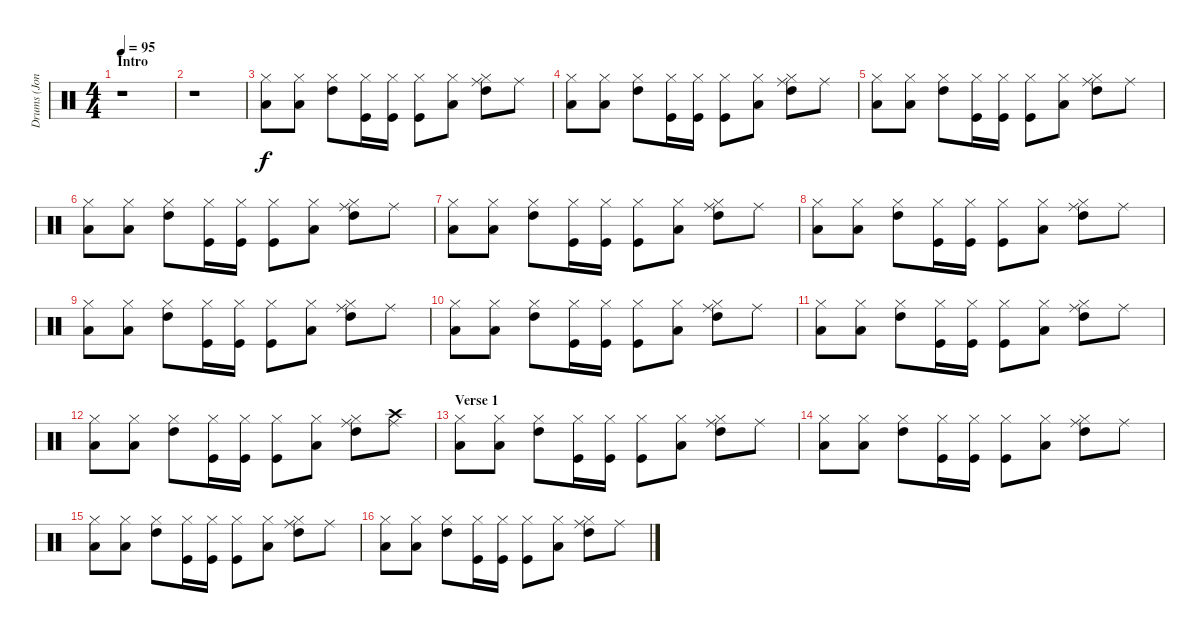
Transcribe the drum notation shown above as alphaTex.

\track ("Drums (Jon Lee)" "Drums (Jon") {instrument percussion}
\staff {score}
\articulation defaults
\ts (4 4)
\section ("" "Intro")
\tempo 95
\clef neutral
\ks c
r.1{dy f} |
r.1 |
("Low Floor Tom (hit)" "Hi-Hat (closed)").8 ("Low Floor Tom (hit)" "Hi-Hat (closed)").8 ("High Tom (hit)" "Hi-Hat (closed)").8 ("Kick (hit)" "Hi-Hat (closed)").16 ("Kick (hit)" "Hi-Hat (closed)").16 ("Kick (hit)" "Hi-Hat (closed)").8 ("Low Floor Tom (hit)" "Hi-Hat (closed)").8 ("High Tom (hit)" "Hi-Hat (closed)" "Ride (middle)").8 "Ride (middle)".8 |
("Low Floor Tom (hit)" "Hi-Hat (closed)").8 ("Low Floor Tom (hit)" "Hi-Hat (closed)").8 ("High Tom (hit)" "Hi-Hat (closed)").8 ("Kick (hit)" "Hi-Hat (closed)").16 ("Kick (hit)" "Hi-Hat (closed)").16 ("Kick (hit)" "Hi-Hat (closed)").8 ("Low Floor Tom (hit)" "Hi-Hat (closed)").8 ("High Tom (hit)" "Hi-Hat (closed)" "Ride (middle)").8 "Ride (middle)".8 |
("Low Floor Tom (hit)" "Hi-Hat (closed)").8 ("Low Floor Tom (hit)" "Hi-Hat (closed)").8 ("High Tom (hit)" "Hi-Hat (closed)").8 ("Kick (hit)" "Hi-Hat (closed)").16 ("Kick (hit)" "Hi-Hat (closed)").16 ("Kick (hit)" "Hi-Hat (closed)").8 ("Low Floor Tom (hit)" "Hi-Hat (closed)").8 ("High Tom (hit)" "Hi-Hat (closed)" "Ride (middle)").8 "Ride (middle)".8 |
("Low Floor Tom (hit)" "Hi-Hat (closed)").8 ("Low Floor Tom (hit)" "Hi-Hat (closed)").8 ("High Tom (hit)" "Hi-Hat (closed)").8 ("Kick (hit)" "Hi-Hat (closed)").16 ("Kick (hit)" "Hi-Hat (closed)").16 ("Kick (hit)" "Hi-Hat (closed)").8 ("Low Floor Tom (hit)" "Hi-Hat (closed)").8 ("High Tom (hit)" "Hi-Hat (closed)" "Ride (middle)").8 "Ride (middle)".8 |
("Low Floor Tom (hit)" "Hi-Hat (closed)").8 ("Low Floor Tom (hit)" "Hi-Hat (closed)").8 ("High Tom (hit)" "Hi-Hat (closed)").8 ("Kick (hit)" "Hi-Hat (closed)").16 ("Kick (hit)" "Hi-Hat (closed)").16 ("Kick (hit)" "Hi-Hat (closed)").8 ("Low Floor Tom (hit)" "Hi-Hat (closed)").8 ("High Tom (hit)" "Hi-Hat (closed)" "Ride (middle)").8 "Ride (middle)".8 |
("Low Floor Tom (hit)" "Hi-Hat (closed)").8 ("Low Floor Tom (hit)" "Hi-Hat (closed)").8 ("High Tom (hit)" "Hi-Hat (closed)").8 ("Kick (hit)" "Hi-Hat (closed)").16 ("Kick (hit)" "Hi-Hat (closed)").16 ("Kick (hit)" "Hi-Hat (closed)").8 ("Low Floor Tom (hit)" "Hi-Hat (closed)").8 ("High Tom (hit)" "Hi-Hat (closed)" "Ride (middle)").8 "Ride (middle)".8 |
("Low Floor Tom (hit)" "Hi-Hat (closed)").8 ("Low Floor Tom (hit)" "Hi-Hat (closed)").8 ("High Tom (hit)" "Hi-Hat (closed)").8 ("Kick (hit)" "Hi-Hat (closed)").16 ("Kick (hit)" "Hi-Hat (closed)").16 ("Kick (hit)" "Hi-Hat (closed)").8 ("Low Floor Tom (hit)" "Hi-Hat (closed)").8 ("High Tom (hit)" "Hi-Hat (closed)" "Ride (middle)").8 "Ride (middle)".8 |
("Low Floor Tom (hit)" "Hi-Hat (closed)").8 ("Low Floor Tom (hit)" "Hi-Hat (closed)").8 ("High Tom (hit)" "Hi-Hat (closed)").8 ("Kick (hit)" "Hi-Hat (closed)").16 ("Kick (hit)" "Hi-Hat (closed)").16 ("Kick (hit)" "Hi-Hat (closed)").8 ("Low Floor Tom (hit)" "Hi-Hat (closed)").8 ("High Tom (hit)" "Hi-Hat (closed)" "Ride (middle)").8 "Ride (middle)".8 |
("Low Floor Tom (hit)" "Hi-Hat (closed)").8 ("Low Floor Tom (hit)" "Hi-Hat (closed)").8 ("High Tom (hit)" "Hi-Hat (closed)").8 ("Kick (hit)" "Hi-Hat (closed)").16 ("Kick (hit)" "Hi-Hat (closed)").16 ("Kick (hit)" "Hi-Hat (closed)").8 ("Low Floor Tom (hit)" "Hi-Hat (closed)").8 ("High Tom (hit)" "Hi-Hat (closed)" "Ride (middle)").8 "Ride (middle)".8 |
("Low Floor Tom (hit)" "Hi-Hat (closed)").8 ("Low Floor Tom (hit)" "Hi-Hat (closed)").8 ("High Tom (hit)" "Hi-Hat (closed)").8 ("Kick (hit)" "Hi-Hat (closed)").16 ("Kick (hit)" "Hi-Hat (closed)").16 ("Kick (hit)" "Hi-Hat (closed)").8 ("Low Floor Tom (hit)" "Hi-Hat (closed)").8 ("High Tom (hit)" "Hi-Hat (closed)" "Ride (middle)").8 ("Ride (middle)" "Crash high (hit)").8 |
\section ("" "Verse 1")
("Low Floor Tom (hit)" "Hi-Hat (closed)").8 ("Low Floor Tom (hit)" "Hi-Hat (closed)").8 ("High Tom (hit)" "Hi-Hat (closed)").8 ("Kick (hit)" "Hi-Hat (closed)").16 ("Kick (hit)" "Hi-Hat (closed)").16 ("Kick (hit)" "Hi-Hat (closed)").8 ("Low Floor Tom (hit)" "Hi-Hat (closed)").8 ("High Tom (hit)" "Hi-Hat (closed)" "Ride (middle)").8 "Ride (middle)".8 |
("Low Floor Tom (hit)" "Hi-Hat (closed)").8 ("Low Floor Tom (hit)" "Hi-Hat (closed)").8 ("High Tom (hit)" "Hi-Hat (closed)").8 ("Kick (hit)" "Hi-Hat (closed)").16 ("Kick (hit)" "Hi-Hat (closed)").16 ("Kick (hit)" "Hi-Hat (closed)").8 ("Low Floor Tom (hit)" "Hi-Hat (closed)").8 ("High Tom (hit)" "Hi-Hat (closed)" "Ride (middle)").8 "Ride (middle)".8 |
("Low Floor Tom (hit)" "Hi-Hat (closed)").8 ("Low Floor Tom (hit)" "Hi-Hat (closed)").8 ("High Tom (hit)" "Hi-Hat (closed)").8 ("Kick (hit)" "Hi-Hat (closed)").16 ("Kick (hit)" "Hi-Hat (closed)").16 ("Kick (hit)" "Hi-Hat (closed)").8 ("Low Floor Tom (hit)" "Hi-Hat (closed)").8 ("High Tom (hit)" "Hi-Hat (closed)" "Ride (middle)").8 "Ride (middle)".8 |
("Low Floor Tom (hit)" "Hi-Hat (closed)").8 ("Low Floor Tom (hit)" "Hi-Hat (closed)").8 ("High Tom (hit)" "Hi-Hat (closed)").8 ("Kick (hit)" "Hi-Hat (closed)").16 ("Kick (hit)" "Hi-Hat (closed)").16 ("Kick (hit)" "Hi-Hat (closed)").8 ("Low Floor Tom (hit)" "Hi-Hat (closed)").8 ("High Tom (hit)" "Hi-Hat (closed)" "Ride (middle)").8 "Ride (middle)".8
